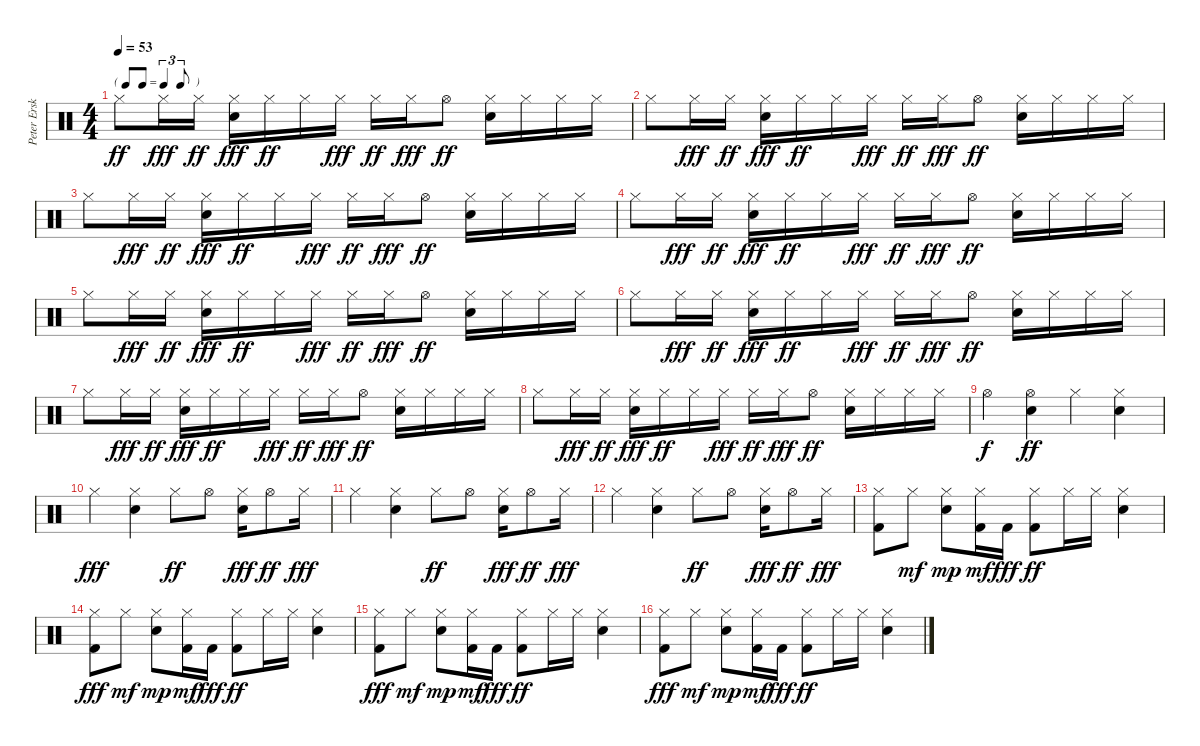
\track ("Peter Erskine" "Peter Ersk") {instrument percussion}
\staff {score}
\articulation defaults
\ts (4 4)
\tf triplet8th
\tempo 53
\clef neutral
\ks c "Hi-Hat (closed)".8{dy ff} "Hi-Hat (closed)".16{dy fff} "Hi-Hat (closed)".16{dy ff}
("Snare (hit) 2" "Hi-Hat (closed)").16{dy fff} "Hi-Hat (closed)".16{dy ff} "Hi-Hat (closed)".16 "Hi-Hat (closed)".16{dy fff} "Hi-Hat (closed)".16{dy ff} "Hi-Hat (closed)".16{dy fff} "Hi-Hat (open)".8{dy ff} ("Snare (hit) 2" "Hi-Hat (closed)").16 "Hi-Hat (closed)".16 "Hi-Hat (closed)".16 "Hi-Hat (closed)".16 |
"Hi-Hat (closed)".8 "Hi-Hat (closed)".16{dy fff} "Hi-Hat (closed)".16{dy ff} ("Snare (hit) 2" "Hi-Hat (closed)").16{dy fff} "Hi-Hat (closed)".16{dy ff} "Hi-Hat (closed)".16 "Hi-Hat (closed)".16{dy fff} "Hi-Hat (closed)".16{dy ff} "Hi-Hat (closed)".16{dy fff} "Hi-Hat (open)".8{dy ff} ("Snare (hit) 2" "Hi-Hat (closed)").16 "Hi-Hat (closed)".16 "Hi-Hat (closed)".16 "Hi-Hat (closed)".16 |
"Hi-Hat (closed)".8 "Hi-Hat (closed)".16{dy fff} "Hi-Hat (closed)".16{dy ff} ("Snare (hit) 2" "Hi-Hat (closed)").16{dy fff} "Hi-Hat (closed)".16{dy ff} "Hi-Hat (closed)".16 "Hi-Hat (closed)".16{dy fff} "Hi-Hat (closed)".16{dy ff} "Hi-Hat (closed)".16{dy fff} "Hi-Hat (open)".8{dy ff} ("Snare (hit) 2" "Hi-Hat (closed)").16 "Hi-Hat (closed)".16 "Hi-Hat (closed)".16 "Hi-Hat (closed)".16 |
"Hi-Hat (closed)".8 "Hi-Hat (closed)".16{dy fff} "Hi-Hat (closed)".16{dy ff} ("Snare (hit) 2" "Hi-Hat (closed)").16{dy fff} "Hi-Hat (closed)".16{dy ff} "Hi-Hat (closed)".16 "Hi-Hat (closed)".16{dy fff} "Hi-Hat (closed)".16{dy ff} "Hi-Hat (closed)".16{dy fff} "Hi-Hat (open)".8{dy ff} ("Snare (hit) 2" "Hi-Hat (closed)").16 "Hi-Hat (closed)".16 "Hi-Hat (closed)".16 "Hi-Hat (closed)".16 |
"Hi-Hat (closed)".8 "Hi-Hat (closed)".16{dy fff} "Hi-Hat (closed)".16{dy ff} ("Snare (hit) 2" "Hi-Hat (closed)").16{dy fff} "Hi-Hat (closed)".16{dy ff} "Hi-Hat (closed)".16 "Hi-Hat (closed)".16{dy fff} "Hi-Hat (closed)".16{dy ff} "Hi-Hat (closed)".16{dy fff} "Hi-Hat (open)".8{dy ff} ("Snare (hit) 2" "Hi-Hat (closed)").16 "Hi-Hat (closed)".16 "Hi-Hat (closed)".16 "Hi-Hat (closed)".16 |
"Hi-Hat (closed)".8 "Hi-Hat (closed)".16{dy fff} "Hi-Hat (closed)".16{dy ff} ("Snare (hit) 2" "Hi-Hat (closed)").16{dy fff} "Hi-Hat (closed)".16{dy ff} "Hi-Hat (closed)".16 "Hi-Hat (closed)".16{dy fff} "Hi-Hat (closed)".16{dy ff} "Hi-Hat (closed)".16{dy fff} "Hi-Hat (open)".8{dy ff} ("Snare (hit) 2" "Hi-Hat (closed)").16 "Hi-Hat (closed)".16 "Hi-Hat (closed)".16 "Hi-Hat (closed)".16 |
"Hi-Hat (closed)".8 "Hi-Hat (closed)".16{dy fff} "Hi-Hat (closed)".16{dy ff} ("Snare (hit) 2" "Hi-Hat (closed)").16{dy fff} "Hi-Hat (closed)".16{dy ff} "Hi-Hat (closed)".16 "Hi-Hat (closed)".16{dy fff} "Hi-Hat (closed)".16{dy ff} "Hi-Hat (closed)".16{dy fff} "Hi-Hat (open)".8{dy ff} ("Snare (hit) 2" "Hi-Hat (closed)").16 "Hi-Hat (closed)".16 "Hi-Hat (closed)".16 "Hi-Hat (closed)".16 |
"Hi-Hat (closed)".8 "Hi-Hat (closed)".16{dy fff} "Hi-Hat (closed)".16{dy ff} ("Snare (hit) 2" "Hi-Hat (closed)").16{dy fff} "Hi-Hat (closed)".16{dy ff} "Hi-Hat (closed)".16 "Hi-Hat (closed)".16{dy fff} "Hi-Hat (closed)".16{dy ff} "Hi-Hat (closed)".16{dy fff} "Hi-Hat (open)".8{dy ff} ("Snare (hit) 2" "Hi-Hat (closed)").16 "Hi-Hat (closed)".16 "Hi-Hat (closed)".16 "Hi-Hat (closed)".16 |
"Hi-Hat (open)".4{dy f} ("Snare (hit) 2" "Hi-Hat (open)").4{dy ff} "Hi-Hat (closed)".4 ("Snare (hit) 2" "Hi-Hat (closed)").4 |
"Hi-Hat (closed)".4{dy fff} ("Snare (hit) 2" "Hi-Hat (closed)").4 "Hi-Hat (closed)".8{dy ff} "Hi-Hat (open)".8 ("Snare (hit) 2" "Hi-Hat (closed)").16{dy fff} "Hi-Hat (open)".8{dy ff} "Hi-Hat (closed)".16{dy fff} |
"Hi-Hat (closed)".4 ("Snare (hit) 2" "Hi-Hat (closed)").4 "Hi-Hat (closed)".8{dy ff} "Hi-Hat (open)".8 ("Snare (hit) 2" "Hi-Hat (closed)").16{dy fff} "Hi-Hat (open)".8{dy ff} "Hi-Hat (closed)".16{dy fff} |
"Hi-Hat (closed)".4 ("Snare (hit) 2" "Hi-Hat (closed)").4 "Hi-Hat (closed)".8{dy ff} "Hi-Hat (open)".8 ("Snare (hit) 2" "Hi-Hat (closed)").16{dy fff} "Hi-Hat (open)".8{dy ff} "Hi-Hat (closed)".16{dy fff} |
("Kick (hit) 2" "Hi-Hat (closed)").8 "Hi-Hat (closed)".8{dy mf} ("Snare (hit) 2" "Hi-Hat (closed)").8{dy mp} ("Kick (hit) 2" "Hi-Hat (closed)").16{dy mf} "Kick (hit) 2".16{dy fff} ("Kick (hit) 2" "Hi-Hat (closed)").8{dy ff} "Hi-Hat (closed)".16 "Hi-Hat (closed)".16 ("Snare (hit) 2" "Hi-Hat (closed)").4 |
("Kick (hit) 2" "Hi-Hat (closed)").8{dy fff} "Hi-Hat (closed)".8{dy mf} ("Snare (hit) 2" "Hi-Hat (closed)").8{dy mp} ("Kick (hit) 2" "Hi-Hat (closed)").16{dy mf} "Kick (hit) 2".16{dy fff} ("Kick (hit) 2" "Hi-Hat (closed)").8{dy ff} "Hi-Hat (closed)".16 "Hi-Hat (closed)".16 ("Snare (hit) 2" "Hi-Hat (closed)").4 |
("Kick (hit) 2" "Hi-Hat (closed)").8{dy fff} "Hi-Hat (closed)".8{dy mf} ("Snare (hit) 2" "Hi-Hat (closed)").8{dy mp} ("Kick (hit) 2" "Hi-Hat (closed)").16{dy mf} "Kick (hit) 2".16{dy fff} ("Kick (hit) 2" "Hi-Hat (closed)").8{dy ff} "Hi-Hat (closed)".16 "Hi-Hat (closed)".16 ("Snare (hit) 2" "Hi-Hat (closed)").4 |
("Kick (hit) 2" "Hi-Hat (closed)").8{dy fff} "Hi-Hat (closed)".8{dy mf} ("Snare (hit) 2" "Hi-Hat (closed)").8{dy mp} ("Kick (hit) 2" "Hi-Hat (closed)").16{dy mf} "Kick (hit) 2".16{dy fff} ("Kick (hit) 2" "Hi-Hat (closed)").8{dy ff} "Hi-Hat (closed)".16 "Hi-Hat (closed)".16 ("Snare (hit) 2" "Hi-Hat (closed)").4
